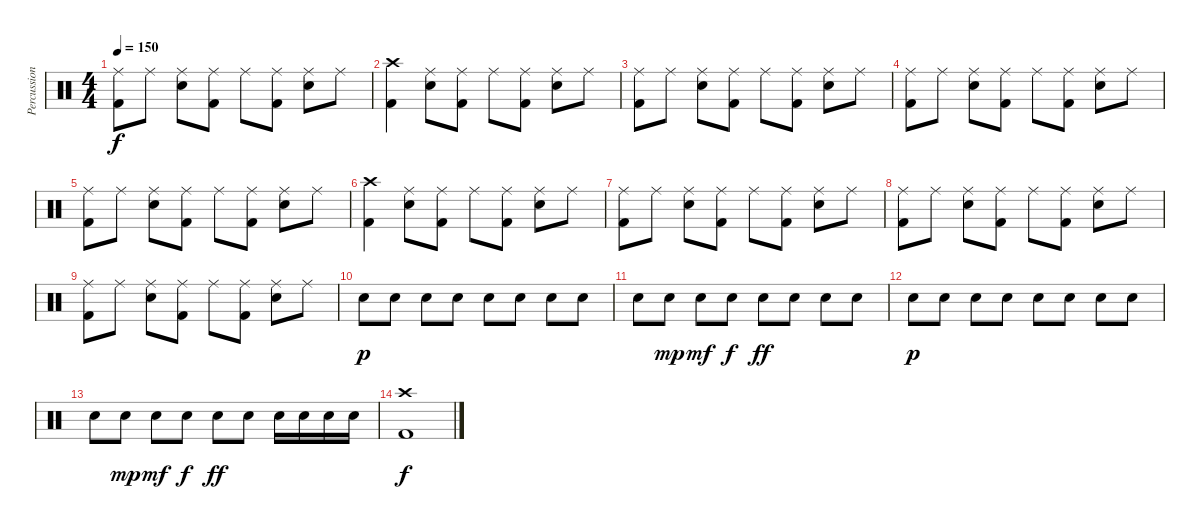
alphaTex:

\track ("Percussions" "Percussion") {instrument percussion}
\staff {score}
\articulation defaults
\ts (4 4)
\tempo 150
\clef neutral
\ks c
("Ride (middle)" "Kick (hit) 2").8{dy f} "Ride (middle)".8 ("Ride (middle)" "Snare (hit) 2").8 ("Ride (middle)" "Kick (hit) 2").8 "Ride (middle)".8 ("Ride (middle)" "Kick (hit) 2").8 ("Ride (middle)" "Snare (hit) 2").8 "Ride (middle)".8 |
("Crash high (hit)" "Kick (hit) 2").4 ("Ride (middle)" "Snare (hit) 2").8 ("Ride (middle)" "Kick (hit) 2").8 "Ride (middle)".8 ("Ride (middle)" "Kick (hit) 2").8 ("Ride (middle)" "Snare (hit) 2").8 "Ride (middle)".8 |
("Ride (middle)" "Kick (hit) 2").8 "Ride (middle)".8 ("Ride (middle)" "Snare (hit) 2").8 ("Ride (middle)" "Kick (hit) 2").8 "Ride (middle)".8 ("Ride (middle)" "Kick (hit) 2").8 ("Ride (middle)" "Snare (hit) 2").8 "Ride (middle)".8 |
("Ride (middle)" "Kick (hit) 2").8 "Ride (middle)".8 ("Ride (middle)" "Snare (hit) 2").8 ("Ride (middle)" "Kick (hit) 2").8 "Ride (middle)".8 ("Ride (middle)" "Kick (hit) 2").8 ("Ride (middle)" "Snare (hit) 2").8 "Ride (middle)".8 |
("Ride (middle)" "Kick (hit) 2").8 "Ride (middle)".8 ("Ride (middle)" "Snare (hit) 2").8 ("Ride (middle)" "Kick (hit) 2").8 "Ride (middle)".8 ("Ride (middle)" "Kick (hit) 2").8 ("Ride (middle)" "Snare (hit) 2").8 "Ride (middle)".8 |
("Crash high (hit)" "Kick (hit) 2").4 ("Ride (middle)" "Snare (hit) 2").8 ("Ride (middle)" "Kick (hit) 2").8 "Ride (middle)".8 ("Ride (middle)" "Kick (hit) 2").8 ("Ride (middle)" "Snare (hit) 2").8 "Ride (middle)".8 |
("Ride (middle)" "Kick (hit) 2").8 "Ride (middle)".8 ("Ride (middle)" "Snare (hit) 2").8 ("Ride (middle)" "Kick (hit) 2").8 "Ride (middle)".8 ("Ride (middle)" "Kick (hit) 2").8 ("Ride (middle)" "Snare (hit) 2").8 "Ride (middle)".8 |
("Ride (middle)" "Kick (hit) 2").8 "Ride (middle)".8 ("Ride (middle)" "Snare (hit) 2").8 ("Ride (middle)" "Kick (hit) 2").8 "Ride (middle)".8 ("Ride (middle)" "Kick (hit) 2").8 ("Ride (middle)" "Snare (hit) 2").8 "Ride (middle)".8 |
("Ride (middle)" "Kick (hit) 2").8 "Ride (middle)".8 ("Ride (middle)" "Snare (hit) 2").8 ("Ride (middle)" "Kick (hit) 2").8 "Ride (middle)".8 ("Ride (middle)" "Kick (hit) 2").8 ("Ride (middle)" "Snare (hit) 2").8 "Ride (middle)".8 |
"Snare (hit) 2".8{dy p} "Snare (hit) 2".8 "Snare (hit) 2".8 "Snare (hit) 2".8 "Snare (hit) 2".8 "Snare (hit) 2".8 "Snare (hit) 2".8 "Snare (hit) 2".8 |
"Snare (hit) 2".8 "Snare (hit) 2".8{dy mp} "Snare (hit) 2".8{dy mf} "Snare (hit) 2".8{dy f} "Snare (hit) 2".8{dy ff} "Snare (hit) 2".8 "Snare (hit) 2".8 "Snare (hit) 2".8 |
"Snare (hit) 2".8{dy p} "Snare (hit) 2".8 "Snare (hit) 2".8 "Snare (hit) 2".8 "Snare (hit) 2".8 "Snare (hit) 2".8 "Snare (hit) 2".8 "Snare (hit) 2".8 |
"Snare (hit) 2".8 "Snare (hit) 2".8{dy mp} "Snare (hit) 2".8{dy mf} "Snare (hit) 2".8{dy f} "Snare (hit) 2".8{dy ff} "Snare (hit) 2".8 "Snare (hit) 2".16 "Snare (hit) 2".16 "Snare (hit) 2".16 "Snare (hit) 2".16 |
("Crash high (hit)" "Kick (hit) 2").1{dy f}
